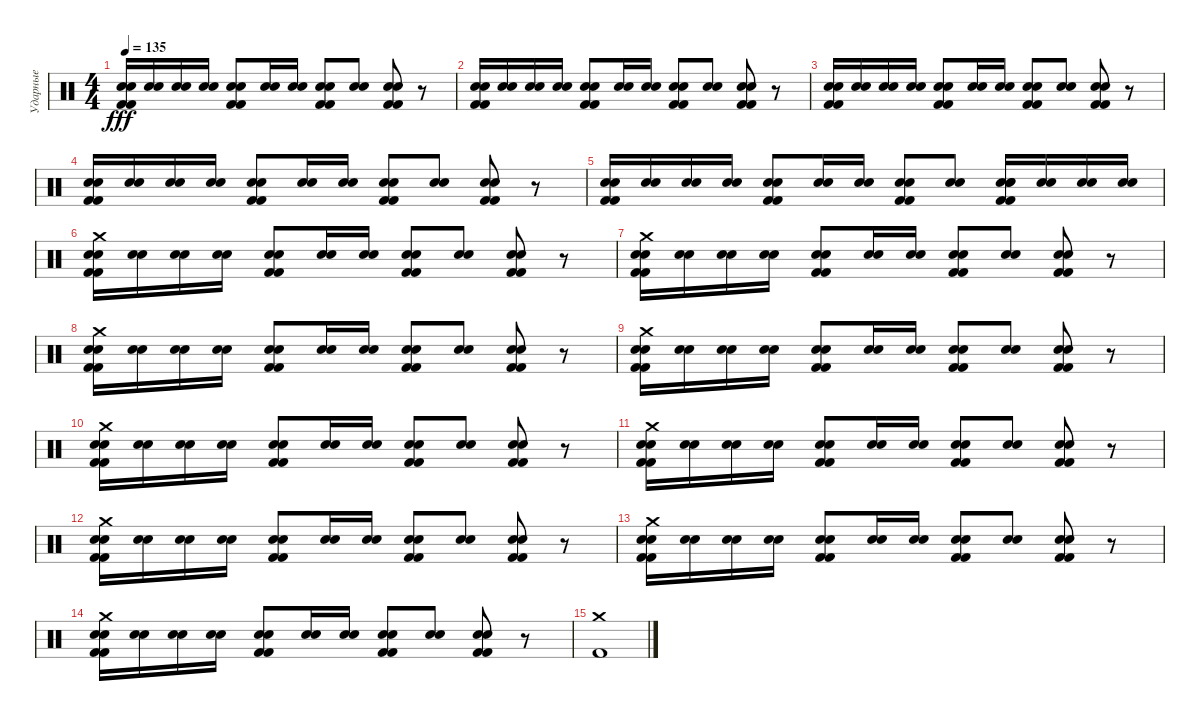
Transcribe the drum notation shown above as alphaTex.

\track ("Ударные" "Ударные") {instrument percussion}
\staff {score}
\articulation defaults
\ts (4 4)
\tempo 135
\clef neutral
\ks c
("Snare (hit) 2" "Snare (hit) 2" "Kick (hit) 2" "Kick (hit) 2").16{dy fff} ("Snare (hit) 2" "Snare (hit) 2").16 ("Snare (hit) 2" "Snare (hit) 2").16 ("Snare (hit) 2" "Snare (hit) 2").16 ("Snare (hit) 2" "Snare (hit) 2" "Kick (hit) 2" "Kick (hit) 2").8 ("Snare (hit) 2" "Snare (hit) 2").16 ("Snare (hit) 2" "Snare (hit) 2").16 ("Snare (hit) 2" "Snare (hit) 2" "Kick (hit) 2" "Kick (hit) 2").8 ("Snare (hit) 2" "Snare (hit) 2").8 ("Snare (hit) 2" "Snare (hit) 2" "Kick (hit) 2" "Kick (hit) 2").8 r.8 |
("Snare (hit) 2" "Snare (hit) 2" "Kick (hit) 2" "Kick (hit) 2").16 ("Snare (hit) 2" "Snare (hit) 2").16 ("Snare (hit) 2" "Snare (hit) 2").16 ("Snare (hit) 2" "Snare (hit) 2").16 ("Snare (hit) 2" "Snare (hit) 2" "Kick (hit) 2" "Kick (hit) 2").8 ("Snare (hit) 2" "Snare (hit) 2").16 ("Snare (hit) 2" "Snare (hit) 2").16 ("Snare (hit) 2" "Snare (hit) 2" "Kick (hit) 2" "Kick (hit) 2").8 ("Snare (hit) 2" "Snare (hit) 2").8 ("Snare (hit) 2" "Snare (hit) 2" "Kick (hit) 2" "Kick (hit) 2").8 r.8 |
("Snare (hit) 2" "Snare (hit) 2" "Kick (hit) 2" "Kick (hit) 2").16 ("Snare (hit) 2" "Snare (hit) 2").16 ("Snare (hit) 2" "Snare (hit) 2").16 ("Snare (hit) 2" "Snare (hit) 2").16 ("Snare (hit) 2" "Snare (hit) 2" "Kick (hit) 2" "Kick (hit) 2").8 ("Snare (hit) 2" "Snare (hit) 2").16 ("Snare (hit) 2" "Snare (hit) 2").16 ("Snare (hit) 2" "Snare (hit) 2" "Kick (hit) 2" "Kick (hit) 2").8 ("Snare (hit) 2" "Snare (hit) 2").8 ("Snare (hit) 2" "Snare (hit) 2" "Kick (hit) 2" "Kick (hit) 2").8 r.8 |
("Snare (hit) 2" "Snare (hit) 2" "Kick (hit) 2" "Kick (hit) 2").16 ("Snare (hit) 2" "Snare (hit) 2").16 ("Snare (hit) 2" "Snare (hit) 2").16 ("Snare (hit) 2" "Snare (hit) 2").16 ("Snare (hit) 2" "Snare (hit) 2" "Kick (hit) 2" "Kick (hit) 2").8 ("Snare (hit) 2" "Snare (hit) 2").16 ("Snare (hit) 2" "Snare (hit) 2").16 ("Snare (hit) 2" "Snare (hit) 2" "Kick (hit) 2" "Kick (hit) 2").8 ("Snare (hit) 2" "Snare (hit) 2").8 ("Snare (hit) 2" "Snare (hit) 2" "Kick (hit) 2" "Kick (hit) 2").8 r.8 |
("Snare (hit) 2" "Snare (hit) 2" "Kick (hit) 2" "Kick (hit) 2").16 ("Snare (hit) 2" "Snare (hit) 2").16 ("Snare (hit) 2" "Snare (hit) 2").16 ("Snare (hit) 2" "Snare (hit) 2").16 ("Snare (hit) 2" "Snare (hit) 2" "Kick (hit) 2" "Kick (hit) 2").8 ("Snare (hit) 2" "Snare (hit) 2").16 ("Snare (hit) 2" "Snare (hit) 2").16 ("Snare (hit) 2" "Snare (hit) 2" "Kick (hit) 2" "Kick (hit) 2").8 ("Snare (hit) 2" "Snare (hit) 2").8 ("Snare (hit) 2" "Snare (hit) 2" "Snare (hit) 2" "Kick (hit) 2" "Kick (hit) 2").16 ("Snare (hit) 2" "Snare (hit) 2").16 ("Snare (hit) 2" "Snare (hit) 2").16 ("Snare (hit) 2" "Snare (hit) 2").16 |
("Crash medium (hit)" "Snare (hit) 2" "Snare (hit) 2" "Kick (hit) 2" "Kick (hit) 2").16 ("Snare (hit) 2" "Snare (hit) 2").16 ("Snare (hit) 2" "Snare (hit) 2").16 ("Snare (hit) 2" "Snare (hit) 2").16 ("Snare (hit) 2" "Snare (hit) 2" "Kick (hit) 2" "Kick (hit) 2").8 ("Snare (hit) 2" "Snare (hit) 2").16 ("Snare (hit) 2" "Snare (hit) 2").16 ("Snare (hit) 2" "Snare (hit) 2" "Kick (hit) 2" "Kick (hit) 2").8 ("Snare (hit) 2" "Snare (hit) 2").8 ("Snare (hit) 2" "Snare (hit) 2" "Kick (hit) 2" "Kick (hit) 2").8 r.8 |
("Crash medium (hit)" "Snare (hit) 2" "Snare (hit) 2" "Kick (hit) 2" "Kick (hit) 2").16 ("Snare (hit) 2" "Snare (hit) 2").16 ("Snare (hit) 2" "Snare (hit) 2").16 ("Snare (hit) 2" "Snare (hit) 2").16 ("Snare (hit) 2" "Snare (hit) 2" "Kick (hit) 2" "Kick (hit) 2").8 ("Snare (hit) 2" "Snare (hit) 2").16 ("Snare (hit) 2" "Snare (hit) 2").16 ("Snare (hit) 2" "Snare (hit) 2" "Kick (hit) 2" "Kick (hit) 2").8 ("Snare (hit) 2" "Snare (hit) 2").8 ("Snare (hit) 2" "Snare (hit) 2" "Kick (hit) 2" "Kick (hit) 2").8 r.8 |
("Crash medium (hit)" "Snare (hit) 2" "Snare (hit) 2" "Kick (hit) 2" "Kick (hit) 2").16 ("Snare (hit) 2" "Snare (hit) 2").16 ("Snare (hit) 2" "Snare (hit) 2").16 ("Snare (hit) 2" "Snare (hit) 2").16 ("Snare (hit) 2" "Snare (hit) 2" "Kick (hit) 2" "Kick (hit) 2").8 ("Snare (hit) 2" "Snare (hit) 2").16 ("Snare (hit) 2" "Snare (hit) 2").16 ("Snare (hit) 2" "Snare (hit) 2" "Kick (hit) 2" "Kick (hit) 2").8 ("Snare (hit) 2" "Snare (hit) 2").8 ("Snare (hit) 2" "Snare (hit) 2" "Kick (hit) 2" "Kick (hit) 2").8 r.8 |
("Crash medium (hit)" "Snare (hit) 2" "Snare (hit) 2" "Kick (hit) 2" "Kick (hit) 2").16 ("Snare (hit) 2" "Snare (hit) 2").16 ("Snare (hit) 2" "Snare (hit) 2").16 ("Snare (hit) 2" "Snare (hit) 2").16 ("Snare (hit) 2" "Snare (hit) 2" "Kick (hit) 2" "Kick (hit) 2").8 ("Snare (hit) 2" "Snare (hit) 2").16 ("Snare (hit) 2" "Snare (hit) 2").16 ("Snare (hit) 2" "Snare (hit) 2" "Kick (hit) 2" "Kick (hit) 2").8 ("Snare (hit) 2" "Snare (hit) 2").8 ("Snare (hit) 2" "Snare (hit) 2" "Kick (hit) 2" "Kick (hit) 2").8 r.8 |
("Crash medium (hit)" "Snare (hit) 2" "Snare (hit) 2" "Kick (hit) 2" "Kick (hit) 2").16 ("Snare (hit) 2" "Snare (hit) 2").16 ("Snare (hit) 2" "Snare (hit) 2").16 ("Snare (hit) 2" "Snare (hit) 2").16 ("Snare (hit) 2" "Snare (hit) 2" "Kick (hit) 2" "Kick (hit) 2").8 ("Snare (hit) 2" "Snare (hit) 2").16 ("Snare (hit) 2" "Snare (hit) 2").16 ("Snare (hit) 2" "Snare (hit) 2" "Kick (hit) 2" "Kick (hit) 2").8 ("Snare (hit) 2" "Snare (hit) 2").8 ("Snare (hit) 2" "Snare (hit) 2" "Kick (hit) 2" "Kick (hit) 2").8 r.8 |
("Crash medium (hit)" "Snare (hit) 2" "Snare (hit) 2" "Kick (hit) 2" "Kick (hit) 2").16 ("Snare (hit) 2" "Snare (hit) 2").16 ("Snare (hit) 2" "Snare (hit) 2").16 ("Snare (hit) 2" "Snare (hit) 2").16 ("Snare (hit) 2" "Snare (hit) 2" "Kick (hit) 2" "Kick (hit) 2").8 ("Snare (hit) 2" "Snare (hit) 2").16 ("Snare (hit) 2" "Snare (hit) 2").16 ("Snare (hit) 2" "Snare (hit) 2" "Kick (hit) 2" "Kick (hit) 2").8 ("Snare (hit) 2" "Snare (hit) 2").8 ("Snare (hit) 2" "Snare (hit) 2" "Kick (hit) 2" "Kick (hit) 2").8 r.8 |
("Crash medium (hit)" "Snare (hit) 2" "Snare (hit) 2" "Kick (hit) 2" "Kick (hit) 2").16 ("Snare (hit) 2" "Snare (hit) 2").16 ("Snare (hit) 2" "Snare (hit) 2").16 ("Snare (hit) 2" "Snare (hit) 2").16 ("Snare (hit) 2" "Snare (hit) 2" "Kick (hit) 2" "Kick (hit) 2").8 ("Snare (hit) 2" "Snare (hit) 2").16 ("Snare (hit) 2" "Snare (hit) 2").16 ("Snare (hit) 2" "Snare (hit) 2" "Kick (hit) 2" "Kick (hit) 2").8 ("Snare (hit) 2" "Snare (hit) 2").8 ("Snare (hit) 2" "Snare (hit) 2" "Kick (hit) 2" "Kick (hit) 2").8 r.8 |
("Crash medium (hit)" "Snare (hit) 2" "Snare (hit) 2" "Kick (hit) 2" "Kick (hit) 2").16 ("Snare (hit) 2" "Snare (hit) 2").16 ("Snare (hit) 2" "Snare (hit) 2").16 ("Snare (hit) 2" "Snare (hit) 2").16 ("Snare (hit) 2" "Snare (hit) 2" "Kick (hit) 2" "Kick (hit) 2").8 ("Snare (hit) 2" "Snare (hit) 2").16 ("Snare (hit) 2" "Snare (hit) 2").16 ("Snare (hit) 2" "Snare (hit) 2" "Kick (hit) 2" "Kick (hit) 2").8 ("Snare (hit) 2" "Snare (hit) 2").8 ("Snare (hit) 2" "Snare (hit) 2" "Kick (hit) 2" "Kick (hit) 2").8 r.8 |
("Crash medium (hit)" "Snare (hit) 2" "Snare (hit) 2" "Kick (hit) 2" "Kick (hit) 2").16 ("Snare (hit) 2" "Snare (hit) 2").16 ("Snare (hit) 2" "Snare (hit) 2").16 ("Snare (hit) 2" "Snare (hit) 2").16 ("Snare (hit) 2" "Snare (hit) 2" "Kick (hit) 2" "Kick (hit) 2").8 ("Snare (hit) 2" "Snare (hit) 2").16 ("Snare (hit) 2" "Snare (hit) 2").16 ("Snare (hit) 2" "Snare (hit) 2" "Kick (hit) 2" "Kick (hit) 2").8 ("Snare (hit) 2" "Snare (hit) 2").8 ("Snare (hit) 2" "Snare (hit) 2" "Kick (hit) 2" "Kick (hit) 2").8 r.8 |
("Crash medium (hit)" "Kick (hit) 2").1
